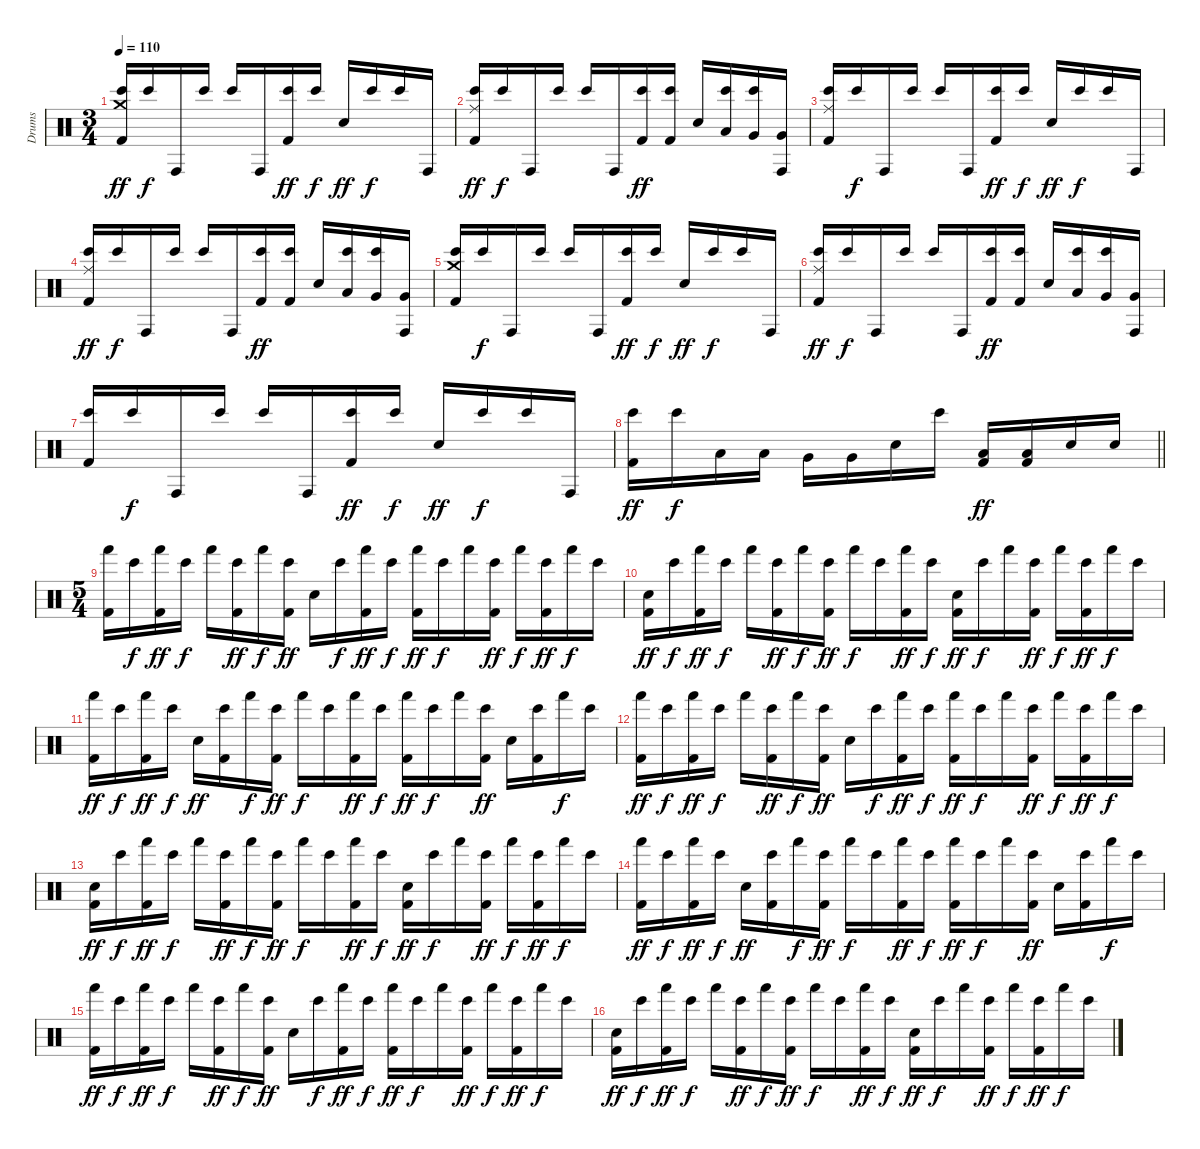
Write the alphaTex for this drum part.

\track ("Drums" "Drums") {instrument percussion}
\staff {score}
\articulation defaults
\ts (3 4)
\section ("" "")
\tempo 110
\clef neutral
\ks c
("Crash medium (hit)" "Bongo High (hit)" "Kick (hit) 2").16{dy ff} "Bongo High (hit)".16{dy f} "Conga high (hit)".16 "Bongo High (hit)".16 "Bongo High (hit)".16 "Conga high (hit)".16 ("Bongo High (hit)" "Kick (hit) 2").16{dy ff} "Bongo High (hit)".16{dy f} "Snare (hit) 2".16{dy ff} "Bongo High (hit)".16{dy f} "Bongo High (hit)".16 "Conga high (hit)".16 |
("Ride (middle)" "Bongo High (hit)" "Kick (hit) 2").16{dy ff} "Bongo High (hit)".16{dy f} "Conga high (hit)".16 "Bongo High (hit)".16 "Bongo High (hit)".16 "Conga high (hit)".16 ("Bongo High (hit)" "Kick (hit) 2").16{dy ff} ("Bongo High (hit)" "Kick (hit) 2").16 "Snare (hit) 2".16 ("Bongo High (hit)" "Low Tom (hit)").16 ("Bongo High (hit)" "Very Low Tom (hit)").16 ("Conga high (hit)" "Very Low Tom (hit)").16 |
("Ride (middle)" "Bongo High (hit)" "Kick (hit) 2").16 "Bongo High (hit)".16{dy f} "Conga high (hit)".16 "Bongo High (hit)".16 "Bongo High (hit)".16 "Conga high (hit)".16 ("Bongo High (hit)" "Kick (hit) 2").16{dy ff} "Bongo High (hit)".16{dy f} "Snare (hit) 2".16{dy ff} "Bongo High (hit)".16{dy f} "Bongo High (hit)".16 "Conga high (hit)".16 |
("Ride (middle)" "Bongo High (hit)" "Kick (hit) 2").16{dy ff} "Bongo High (hit)".16{dy f} "Conga high (hit)".16 "Bongo High (hit)".16 "Bongo High (hit)".16 "Conga high (hit)".16 ("Bongo High (hit)" "Kick (hit) 2").16{dy ff} ("Bongo High (hit)" "Kick (hit) 2").16 "Snare (hit) 2".16 ("Bongo High (hit)" "Low Tom (hit)").16 ("Bongo High (hit)" "Very Low Tom (hit)").16 ("Conga high (hit)" "Very Low Tom (hit)").16 |
("Crash medium (hit)" "Bongo High (hit)" "Kick (hit) 2").16 "Bongo High (hit)".16{dy f} "Conga high (hit)".16 "Bongo High (hit)".16 "Bongo High (hit)".16 "Conga high (hit)".16 ("Bongo High (hit)" "Kick (hit) 2").16{dy ff} "Bongo High (hit)".16{dy f} "Snare (hit) 2".16{dy ff} "Bongo High (hit)".16{dy f} "Bongo High (hit)".16 "Conga high (hit)".16 |
("Ride (middle)" "Bongo High (hit)" "Kick (hit) 2").16{dy ff} "Bongo High (hit)".16{dy f} "Conga high (hit)".16 "Bongo High (hit)".16 "Bongo High (hit)".16 "Conga high (hit)".16 ("Bongo High (hit)" "Kick (hit) 2").16{dy ff} ("Bongo High (hit)" "Kick (hit) 2").16 "Snare (hit) 2".16 ("Bongo High (hit)" "Low Tom (hit)").16 ("Bongo High (hit)" "Very Low Tom (hit)").16 ("Conga high (hit)" "Very Low Tom (hit)").16 |
("Bongo High (hit)" "Kick (hit) 2").16 "Bongo High (hit)".16{dy f} "Conga high (hit)".16 "Bongo High (hit)".16 "Bongo High (hit)".16 "Conga high (hit)".16 ("Bongo High (hit)" "Kick (hit) 2").16{dy ff} "Bongo High (hit)".16{dy f} "Snare (hit) 2".16{dy ff} "Bongo High (hit)".16{dy f} "Bongo High (hit)".16 "Conga high (hit)".16 |
\barLineRight lightlight
("Bongo High (hit)" "Kick (hit) 2").16{dy ff} "Bongo High (hit)".16{dy f} "Low Tom (hit)".16 "Low Tom (hit)".16 "Very Low Tom (hit)".16 "Very Low Tom (hit)".16 "Snare (hit) 2".16 "Bongo High (hit)".16 ("Low Tom (hit)" "Kick (hit) 2").16{dy ff} ("Low Tom (hit)" "Kick (hit) 2").16 "Snare (hit) 2".16 "Snare (hit) 2".16 |
\ts (5 4)
\section ("" "")
("Hand (hit)" "Kick (hit) 2").16 "Bongo High (hit)".16{dy f} ("Hand (hit)" "Kick (hit) 2").16{dy ff} "Bongo High (hit)".16{dy f} "Hand (hit)".16 ("Bongo High (hit)" "Kick (hit) 2").16{dy ff} "Hand (hit)".16{dy f} ("Bongo High (hit)" "Kick (hit) 2").16{dy ff} "Snare (hit) 2".16 "Bongo High (hit)".16{dy f} ("Hand (hit)" "Kick (hit) 2").16{dy ff} "Bongo High (hit)".16{dy f} ("Hand (hit)" "Kick (hit) 2").16{dy ff} "Bongo High (hit)".16{dy f} "Hand (hit)".16 ("Bongo High (hit)" "Kick (hit) 2").16{dy ff} "Hand (hit)".16{dy f} ("Bongo High (hit)" "Kick (hit) 2").16{dy ff} "Hand (hit)".16{dy f} "Bongo High (hit)".16 |
("Snare (hit) 2" "Kick (hit) 2").16{dy ff} "Bongo High (hit)".16{dy f} ("Hand (hit)" "Kick (hit) 2").16{dy ff} "Bongo High (hit)".16{dy f} "Hand (hit)".16 ("Bongo High (hit)" "Kick (hit) 2").16{dy ff} "Hand (hit)".16{dy f} ("Bongo High (hit)" "Kick (hit) 2").16{dy ff} "Hand (hit)".16{dy f} "Bongo High (hit)".16 ("Hand (hit)" "Kick (hit) 2").16{dy ff} "Bongo High (hit)".16{dy f} ("Snare (hit) 2" "Kick (hit) 2").16{dy ff} "Bongo High (hit)".16{dy f} "Hand (hit)".16 ("Bongo High (hit)" "Kick (hit) 2").16{dy ff} "Hand (hit)".16{dy f} ("Bongo High (hit)" "Kick (hit) 2").16{dy ff} "Hand (hit)".16{dy f} "Bongo High (hit)".16 |
("Hand (hit)" "Kick (hit) 2").16{dy ff} "Bongo High (hit)".16{dy f} ("Hand (hit)" "Kick (hit) 2").16{dy ff} "Bongo High (hit)".16{dy f} "Snare (hit) 2".16{dy ff} ("Bongo High (hit)" "Kick (hit) 2").16 "Hand (hit)".16{dy f} ("Bongo High (hit)" "Kick (hit) 2").16{dy ff} "Hand (hit)".16{dy f} "Bongo High (hit)".16 ("Hand (hit)" "Kick (hit) 2").16{dy ff} "Bongo High (hit)".16{dy f} ("Hand (hit)" "Kick (hit) 2").16{dy ff} "Bongo High (hit)".16{dy f} "Hand (hit)".16 ("Bongo High (hit)" "Kick (hit) 2").16{dy ff} "Snare (hit) 2".16 ("Bongo High (hit)" "Kick (hit) 2").16 "Hand (hit)".16{dy f} "Bongo High (hit)".16 |
("Hand (hit)" "Kick (hit) 2").16{dy ff} "Bongo High (hit)".16{dy f} ("Hand (hit)" "Kick (hit) 2").16{dy ff} "Bongo High (hit)".16{dy f} "Hand (hit)".16 ("Bongo High (hit)" "Kick (hit) 2").16{dy ff} "Hand (hit)".16{dy f} ("Bongo High (hit)" "Kick (hit) 2").16{dy ff} "Snare (hit) 2".16 "Bongo High (hit)".16{dy f} ("Hand (hit)" "Kick (hit) 2").16{dy ff} "Bongo High (hit)".16{dy f} ("Hand (hit)" "Kick (hit) 2").16{dy ff} "Bongo High (hit)".16{dy f} "Hand (hit)".16 ("Bongo High (hit)" "Kick (hit) 2").16{dy ff} "Hand (hit)".16{dy f} ("Bongo High (hit)" "Kick (hit) 2").16{dy ff} "Hand (hit)".16{dy f} "Bongo High (hit)".16 |
("Snare (hit) 2" "Kick (hit) 2").16{dy ff} "Bongo High (hit)".16{dy f} ("Hand (hit)" "Kick (hit) 2").16{dy ff} "Bongo High (hit)".16{dy f} "Hand (hit)".16 ("Bongo High (hit)" "Kick (hit) 2").16{dy ff} "Hand (hit)".16{dy f} ("Bongo High (hit)" "Kick (hit) 2").16{dy ff} "Hand (hit)".16{dy f} "Bongo High (hit)".16 ("Hand (hit)" "Kick (hit) 2").16{dy ff} "Bongo High (hit)".16{dy f} ("Snare (hit) 2" "Kick (hit) 2").16{dy ff} "Bongo High (hit)".16{dy f} "Hand (hit)".16 ("Bongo High (hit)" "Kick (hit) 2").16{dy ff} "Hand (hit)".16{dy f} ("Bongo High (hit)" "Kick (hit) 2").16{dy ff} "Hand (hit)".16{dy f} "Bongo High (hit)".16 |
("Hand (hit)" "Kick (hit) 2").16{dy ff} "Bongo High (hit)".16{dy f} ("Hand (hit)" "Kick (hit) 2").16{dy ff} "Bongo High (hit)".16{dy f} "Snare (hit) 2".16{dy ff} ("Bongo High (hit)" "Kick (hit) 2").16 "Hand (hit)".16{dy f} ("Bongo High (hit)" "Kick (hit) 2").16{dy ff} "Hand (hit)".16{dy f} "Bongo High (hit)".16 ("Hand (hit)" "Kick (hit) 2").16{dy ff} "Bongo High (hit)".16{dy f} ("Hand (hit)" "Kick (hit) 2").16{dy ff} "Bongo High (hit)".16{dy f} "Hand (hit)".16 ("Bongo High (hit)" "Kick (hit) 2").16{dy ff} "Snare (hit) 2".16 ("Bongo High (hit)" "Kick (hit) 2").16 "Hand (hit)".16{dy f} "Bongo High (hit)".16 |
("Hand (hit)" "Kick (hit) 2").16{dy ff} "Bongo High (hit)".16{dy f} ("Hand (hit)" "Kick (hit) 2").16{dy ff} "Bongo High (hit)".16{dy f} "Hand (hit)".16 ("Bongo High (hit)" "Kick (hit) 2").16{dy ff} "Hand (hit)".16{dy f} ("Bongo High (hit)" "Kick (hit) 2").16{dy ff} "Snare (hit) 2".16 "Bongo High (hit)".16{dy f} ("Hand (hit)" "Kick (hit) 2").16{dy ff} "Bongo High (hit)".16{dy f} ("Hand (hit)" "Kick (hit) 2").16{dy ff} "Bongo High (hit)".16{dy f} "Hand (hit)".16 ("Bongo High (hit)" "Kick (hit) 2").16{dy ff} "Hand (hit)".16{dy f} ("Bongo High (hit)" "Kick (hit) 2").16{dy ff} "Hand (hit)".16{dy f} "Bongo High (hit)".16 |
("Snare (hit) 2" "Kick (hit) 2").16{dy ff} "Bongo High (hit)".16{dy f} ("Hand (hit)" "Kick (hit) 2").16{dy ff} "Bongo High (hit)".16{dy f} "Hand (hit)".16 ("Bongo High (hit)" "Kick (hit) 2").16{dy ff} "Hand (hit)".16{dy f} ("Bongo High (hit)" "Kick (hit) 2").16{dy ff} "Hand (hit)".16{dy f} "Bongo High (hit)".16 ("Hand (hit)" "Kick (hit) 2").16{dy ff} "Bongo High (hit)".16{dy f} ("Snare (hit) 2" "Kick (hit) 2").16{dy ff} "Bongo High (hit)".16{dy f} "Hand (hit)".16 ("Bongo High (hit)" "Kick (hit) 2").16{dy ff} "Hand (hit)".16{dy f} ("Bongo High (hit)" "Kick (hit) 2").16{dy ff} "Hand (hit)".16{dy f} "Bongo High (hit)".16
